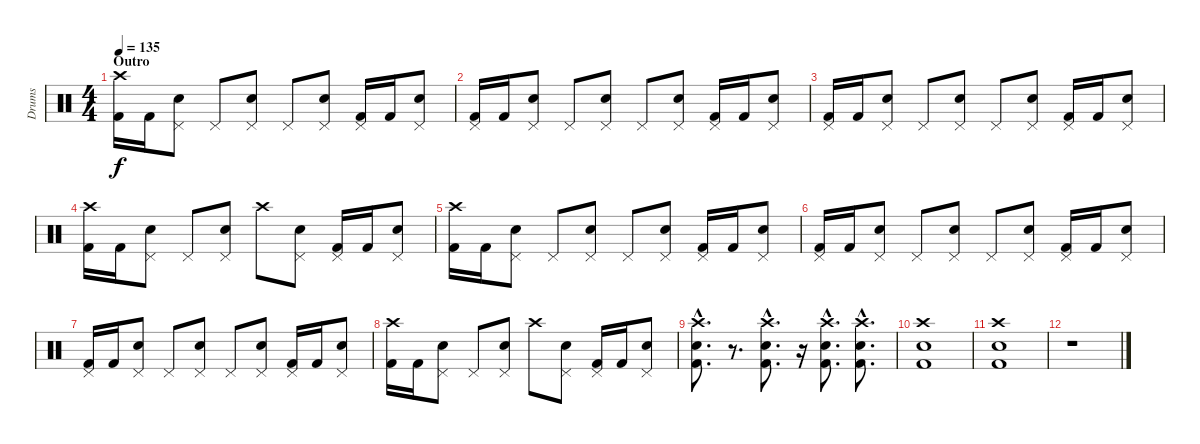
\track ("Drums" "Drums") {instrument percussion}
\staff {score}
\articulation defaults
\ts (4 4)
\section ("" "Outro")
\tempo 135
\clef neutral
\ks c
("Crash high (hit)" "Kick (hit) 2").16{dy f} "Kick (hit) 2".16 ("Pedal Hi-Hat (hit)" "Snare (hit) 2").8 "Pedal Hi-Hat (hit)".8 ("Pedal Hi-Hat (hit)" "Snare (hit) 2").8 "Pedal Hi-Hat (hit)".8 ("Pedal Hi-Hat (hit)" "Snare (hit) 2").8 ("Pedal Hi-Hat (hit)" "Kick (hit) 2").16 "Kick (hit) 2".16 ("Pedal Hi-Hat (hit)" "Snare (hit) 2").8 |
("Pedal Hi-Hat (hit)" "Kick (hit) 2").16 "Kick (hit) 2".16 ("Pedal Hi-Hat (hit)" "Snare (hit) 2").8 "Pedal Hi-Hat (hit)".8 ("Pedal Hi-Hat (hit)" "Snare (hit) 2").8 "Pedal Hi-Hat (hit)".8 ("Pedal Hi-Hat (hit)" "Snare (hit) 2").8 ("Pedal Hi-Hat (hit)" "Kick (hit) 2").16 "Kick (hit) 2".16 ("Pedal Hi-Hat (hit)" "Snare (hit) 2").8 |
("Pedal Hi-Hat (hit)" "Kick (hit) 2").16 "Kick (hit) 2".16 ("Pedal Hi-Hat (hit)" "Snare (hit) 2").8 "Pedal Hi-Hat (hit)".8 ("Pedal Hi-Hat (hit)" "Snare (hit) 2").8 "Pedal Hi-Hat (hit)".8 ("Pedal Hi-Hat (hit)" "Snare (hit) 2").8 ("Pedal Hi-Hat (hit)" "Kick (hit) 2").16 "Kick (hit) 2".16 ("Pedal Hi-Hat (hit)" "Snare (hit) 2").8 |
("Crash high (hit)" "Kick (hit) 2").16 "Kick (hit) 2".16 ("Pedal Hi-Hat (hit)" "Snare (hit) 2").8 "Pedal Hi-Hat (hit)".8 ("Pedal Hi-Hat (hit)" "Snare (hit) 2").8 "Crash high (hit)".8 ("Pedal Hi-Hat (hit)" "Snare (hit) 2").8 ("Pedal Hi-Hat (hit)" "Kick (hit) 2").16 "Kick (hit) 2".16 ("Pedal Hi-Hat (hit)" "Snare (hit) 2").8 |
("Crash high (hit)" "Kick (hit) 2").16 "Kick (hit) 2".16 ("Pedal Hi-Hat (hit)" "Snare (hit) 2").8 "Pedal Hi-Hat (hit)".8 ("Pedal Hi-Hat (hit)" "Snare (hit) 2").8 "Pedal Hi-Hat (hit)".8 ("Pedal Hi-Hat (hit)" "Snare (hit) 2").8 ("Pedal Hi-Hat (hit)" "Kick (hit) 2").16 "Kick (hit) 2".16 ("Pedal Hi-Hat (hit)" "Snare (hit) 2").8 |
("Pedal Hi-Hat (hit)" "Kick (hit) 2").16 "Kick (hit) 2".16 ("Pedal Hi-Hat (hit)" "Snare (hit) 2").8 "Pedal Hi-Hat (hit)".8 ("Pedal Hi-Hat (hit)" "Snare (hit) 2").8 "Pedal Hi-Hat (hit)".8 ("Pedal Hi-Hat (hit)" "Snare (hit) 2").8 ("Pedal Hi-Hat (hit)" "Kick (hit) 2").16 "Kick (hit) 2".16 ("Pedal Hi-Hat (hit)" "Snare (hit) 2").8 |
("Pedal Hi-Hat (hit)" "Kick (hit) 2").16 "Kick (hit) 2".16 ("Pedal Hi-Hat (hit)" "Snare (hit) 2").8 "Pedal Hi-Hat (hit)".8 ("Pedal Hi-Hat (hit)" "Snare (hit) 2").8 "Pedal Hi-Hat (hit)".8 ("Pedal Hi-Hat (hit)" "Snare (hit) 2").8 ("Pedal Hi-Hat (hit)" "Kick (hit) 2").16 "Kick (hit) 2".16 ("Pedal Hi-Hat (hit)" "Snare (hit) 2").8 |
("Crash high (hit)" "Kick (hit) 2").16 "Kick (hit) 2".16 ("Pedal Hi-Hat (hit)" "Snare (hit) 2").8 "Pedal Hi-Hat (hit)".8 ("Pedal Hi-Hat (hit)" "Snare (hit) 2").8 "Crash high (hit)".8 ("Pedal Hi-Hat (hit)" "Snare (hit) 2").8 ("Pedal Hi-Hat (hit)" "Kick (hit) 2").16 "Kick (hit) 2".16 ("Pedal Hi-Hat (hit)" "Snare (hit) 2").8 |
("Crash high (hit)"{hac} "Snare (hit) 2"{hac} "Kick (hit) 2"{hac}).8{d} r.8{d} ("Crash high (hit)"{hac} "Snare (hit) 2"{hac} "Kick (hit) 2"{hac}).8{d} r.16 ("Crash high (hit)"{hac} "Snare (hit) 2"{hac} "Kick (hit) 2"{hac}).8{d} ("Crash high (hit)"{hac} "Snare (hit) 2"{hac} "Kick (hit) 2"{hac}).8{d} |
("Crash high (hit)" "Snare (hit) 2" "Kick (hit) 2").1 |
("Crash high (hit)" "Snare (hit) 2" "Kick (hit) 2").1 |
r.1
